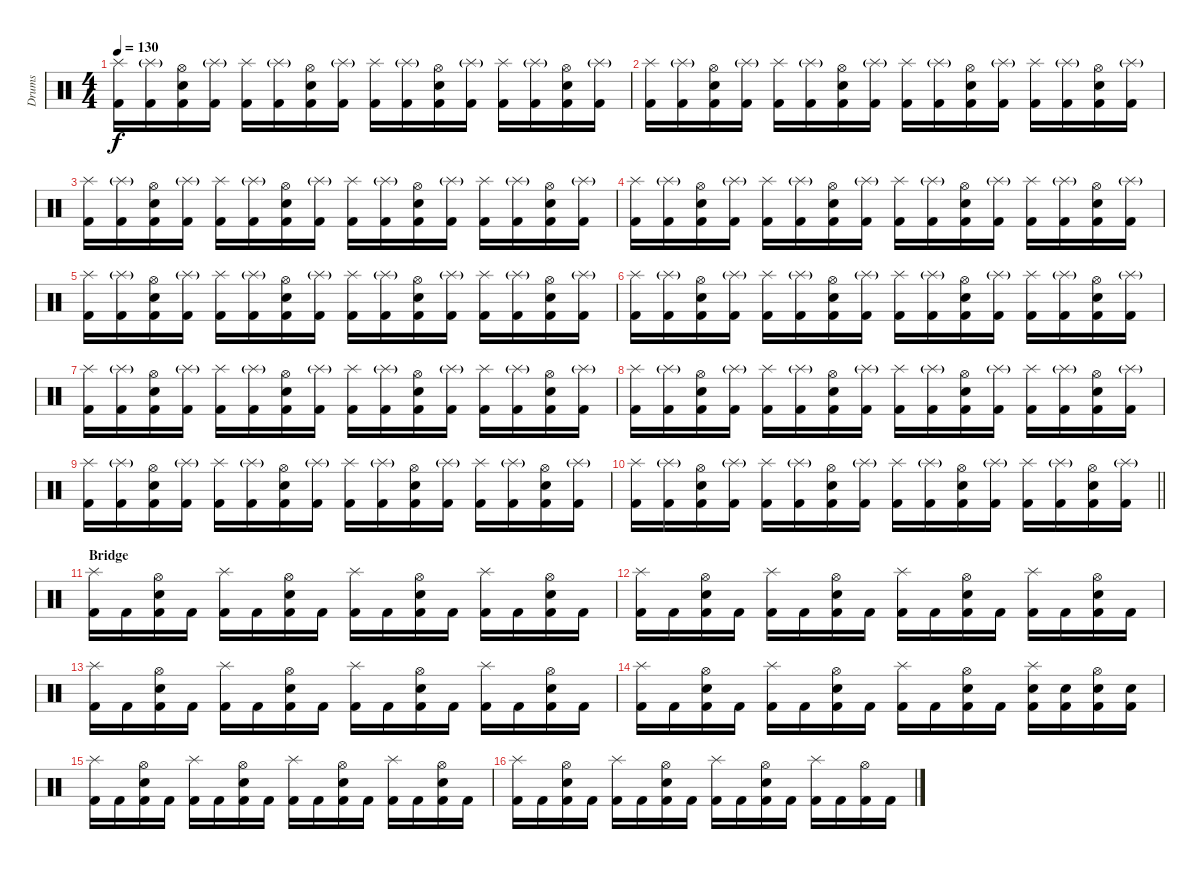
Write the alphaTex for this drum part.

\track ("Drums" "Drums") {instrument percussion}
\staff {score}
\articulation defaults
\ts (4 4)
\tempo 130
\clef neutral
\ks c
("Splash (hit)" "Kick (hit) 2").16{dy f} ("Splash (hit)"{g} "Kick (hit) 2").16 ("Hi-Hat (open)" "Electric Snare (hit)" "Kick (hit) 2").16 ("Splash (hit)"{g} "Kick (hit) 2").16 ("Splash (hit)" "Kick (hit) 2").16 ("Splash (hit)"{g} "Kick (hit) 2").16 ("Hi-Hat (open)" "Electric Snare (hit)" "Kick (hit) 2").16 ("Splash (hit)"{g} "Kick (hit) 2").16 ("Splash (hit)" "Kick (hit) 2").16 ("Splash (hit)"{g} "Kick (hit) 2").16 ("Hi-Hat (open)" "Electric Snare (hit)" "Kick (hit) 2").16 ("Splash (hit)"{g} "Kick (hit) 2").16 ("Splash (hit)" "Kick (hit) 2").16 ("Splash (hit)"{g} "Kick (hit) 2").16 ("Hi-Hat (open)" "Electric Snare (hit)" "Kick (hit) 2").16 ("Splash (hit)"{g} "Kick (hit) 2").16 |
("Splash (hit)" "Kick (hit) 2").16 ("Splash (hit)"{g} "Kick (hit) 2").16 ("Hi-Hat (open)" "Electric Snare (hit)" "Kick (hit) 2").16 ("Splash (hit)"{g} "Kick (hit) 2").16 ("Splash (hit)" "Kick (hit) 2").16 ("Splash (hit)"{g} "Kick (hit) 2").16 ("Hi-Hat (open)" "Electric Snare (hit)" "Kick (hit) 2").16 ("Splash (hit)"{g} "Kick (hit) 2").16 ("Splash (hit)" "Kick (hit) 2").16 ("Splash (hit)"{g} "Kick (hit) 2").16 ("Hi-Hat (open)" "Electric Snare (hit)" "Kick (hit) 2").16 ("Splash (hit)"{g} "Kick (hit) 2").16 ("Splash (hit)" "Kick (hit) 2").16 ("Splash (hit)"{g} "Kick (hit) 2").16 ("Hi-Hat (open)" "Electric Snare (hit)" "Kick (hit) 2").16 ("Splash (hit)"{g} "Kick (hit) 2").16 |
("Splash (hit)" "Kick (hit) 2").16 ("Splash (hit)"{g} "Kick (hit) 2").16 ("Hi-Hat (open)" "Electric Snare (hit)" "Kick (hit) 2").16 ("Splash (hit)"{g} "Kick (hit) 2").16 ("Splash (hit)" "Kick (hit) 2").16 ("Splash (hit)"{g} "Kick (hit) 2").16 ("Hi-Hat (open)" "Electric Snare (hit)" "Kick (hit) 2").16 ("Splash (hit)"{g} "Kick (hit) 2").16 ("Splash (hit)" "Kick (hit) 2").16 ("Splash (hit)"{g} "Kick (hit) 2").16 ("Hi-Hat (open)" "Electric Snare (hit)" "Kick (hit) 2").16 ("Splash (hit)"{g} "Kick (hit) 2").16 ("Splash (hit)" "Kick (hit) 2").16 ("Splash (hit)"{g} "Kick (hit) 2").16 ("Hi-Hat (open)" "Electric Snare (hit)" "Kick (hit) 2").16 ("Splash (hit)"{g} "Kick (hit) 2").16 |
("Splash (hit)" "Kick (hit) 2").16 ("Splash (hit)"{g} "Kick (hit) 2").16 ("Hi-Hat (open)" "Electric Snare (hit)" "Kick (hit) 2").16 ("Splash (hit)"{g} "Kick (hit) 2").16 ("Splash (hit)" "Kick (hit) 2").16 ("Splash (hit)"{g} "Kick (hit) 2").16 ("Hi-Hat (open)" "Electric Snare (hit)" "Kick (hit) 2").16 ("Splash (hit)"{g} "Kick (hit) 2").16 ("Splash (hit)" "Kick (hit) 2").16 ("Splash (hit)"{g} "Kick (hit) 2").16 ("Hi-Hat (open)" "Electric Snare (hit)" "Kick (hit) 2").16 ("Splash (hit)"{g} "Kick (hit) 2").16 ("Splash (hit)" "Kick (hit) 2").16 ("Splash (hit)"{g} "Kick (hit) 2").16 ("Hi-Hat (open)" "Electric Snare (hit)" "Kick (hit) 2").16 ("Splash (hit)"{g} "Kick (hit) 2").16 |
("Splash (hit)" "Kick (hit) 2").16 ("Splash (hit)"{g} "Kick (hit) 2").16 ("Hi-Hat (open)" "Electric Snare (hit)" "Kick (hit) 2").16 ("Splash (hit)"{g} "Kick (hit) 2").16 ("Splash (hit)" "Kick (hit) 2").16 ("Splash (hit)"{g} "Kick (hit) 2").16 ("Hi-Hat (open)" "Electric Snare (hit)" "Kick (hit) 2").16 ("Splash (hit)"{g} "Kick (hit) 2").16 ("Splash (hit)" "Kick (hit) 2").16 ("Splash (hit)"{g} "Kick (hit) 2").16 ("Hi-Hat (open)" "Electric Snare (hit)" "Kick (hit) 2").16 ("Splash (hit)"{g} "Kick (hit) 2").16 ("Splash (hit)" "Kick (hit) 2").16 ("Splash (hit)"{g} "Kick (hit) 2").16 ("Hi-Hat (open)" "Electric Snare (hit)" "Kick (hit) 2").16 ("Splash (hit)"{g} "Kick (hit) 2").16 |
("Splash (hit)" "Kick (hit) 2").16 ("Splash (hit)"{g} "Kick (hit) 2").16 ("Hi-Hat (open)" "Electric Snare (hit)" "Kick (hit) 2").16 ("Splash (hit)"{g} "Kick (hit) 2").16 ("Splash (hit)" "Kick (hit) 2").16 ("Splash (hit)"{g} "Kick (hit) 2").16 ("Hi-Hat (open)" "Electric Snare (hit)" "Kick (hit) 2").16 ("Splash (hit)"{g} "Kick (hit) 2").16 ("Splash (hit)" "Kick (hit) 2").16 ("Splash (hit)"{g} "Kick (hit) 2").16 ("Hi-Hat (open)" "Electric Snare (hit)" "Kick (hit) 2").16 ("Splash (hit)"{g} "Kick (hit) 2").16 ("Splash (hit)" "Kick (hit) 2").16 ("Splash (hit)"{g} "Kick (hit) 2").16 ("Hi-Hat (open)" "Electric Snare (hit)" "Kick (hit) 2").16 ("Splash (hit)"{g} "Kick (hit) 2").16 |
("Splash (hit)" "Kick (hit) 2").16 ("Splash (hit)"{g} "Kick (hit) 2").16 ("Hi-Hat (open)" "Electric Snare (hit)" "Kick (hit) 2").16 ("Splash (hit)"{g} "Kick (hit) 2").16 ("Splash (hit)" "Kick (hit) 2").16 ("Splash (hit)"{g} "Kick (hit) 2").16 ("Hi-Hat (open)" "Electric Snare (hit)" "Kick (hit) 2").16 ("Splash (hit)"{g} "Kick (hit) 2").16 ("Splash (hit)" "Kick (hit) 2").16 ("Splash (hit)"{g} "Kick (hit) 2").16 ("Hi-Hat (open)" "Electric Snare (hit)" "Kick (hit) 2").16 ("Splash (hit)"{g} "Kick (hit) 2").16 ("Splash (hit)" "Kick (hit) 2").16 ("Splash (hit)"{g} "Kick (hit) 2").16 ("Hi-Hat (open)" "Electric Snare (hit)" "Kick (hit) 2").16 ("Splash (hit)"{g} "Kick (hit) 2").16 |
("Splash (hit)" "Kick (hit) 2").16 ("Splash (hit)"{g} "Kick (hit) 2").16 ("Hi-Hat (open)" "Electric Snare (hit)" "Kick (hit) 2").16 ("Splash (hit)"{g} "Kick (hit) 2").16 ("Splash (hit)" "Kick (hit) 2").16 ("Splash (hit)"{g} "Kick (hit) 2").16 ("Hi-Hat (open)" "Electric Snare (hit)" "Kick (hit) 2").16 ("Splash (hit)"{g} "Kick (hit) 2").16 ("Splash (hit)" "Kick (hit) 2").16 ("Splash (hit)"{g} "Kick (hit) 2").16 ("Hi-Hat (open)" "Electric Snare (hit)" "Kick (hit) 2").16 ("Splash (hit)"{g} "Kick (hit) 2").16 ("Splash (hit)" "Kick (hit) 2").16 ("Splash (hit)"{g} "Kick (hit) 2").16 ("Hi-Hat (open)" "Electric Snare (hit)" "Kick (hit) 2").16 ("Splash (hit)"{g} "Kick (hit) 2").16 |
("Splash (hit)" "Kick (hit) 2").16 ("Splash (hit)"{g} "Kick (hit) 2").16 ("Hi-Hat (open)" "Electric Snare (hit)" "Kick (hit) 2").16 ("Splash (hit)"{g} "Kick (hit) 2").16 ("Splash (hit)" "Kick (hit) 2").16 ("Splash (hit)"{g} "Kick (hit) 2").16 ("Hi-Hat (open)" "Electric Snare (hit)" "Kick (hit) 2").16 ("Splash (hit)"{g} "Kick (hit) 2").16 ("Splash (hit)" "Kick (hit) 2").16 ("Splash (hit)"{g} "Kick (hit) 2").16 ("Hi-Hat (open)" "Electric Snare (hit)" "Kick (hit) 2").16 ("Splash (hit)"{g} "Kick (hit) 2").16 ("Splash (hit)" "Kick (hit) 2").16 ("Splash (hit)"{g} "Kick (hit) 2").16 ("Hi-Hat (open)" "Electric Snare (hit)" "Kick (hit) 2").16 ("Splash (hit)"{g} "Kick (hit) 2").16 |
\barLineRight lightlight
("Splash (hit)" "Kick (hit) 2").16 ("Splash (hit)"{g} "Kick (hit) 2").16 ("Hi-Hat (open)" "Electric Snare (hit)" "Kick (hit) 2").16 ("Splash (hit)"{g} "Kick (hit) 2").16 ("Splash (hit)" "Kick (hit) 2").16 ("Splash (hit)"{g} "Kick (hit) 2").16 ("Hi-Hat (open)" "Electric Snare (hit)" "Kick (hit) 2").16 ("Splash (hit)"{g} "Kick (hit) 2").16 ("Splash (hit)" "Kick (hit) 2").16 ("Splash (hit)"{g} "Kick (hit) 2").16 ("Hi-Hat (open)" "Electric Snare (hit)" "Kick (hit) 2").16 ("Splash (hit)"{g} "Kick (hit) 2").16 ("Splash (hit)" "Kick (hit) 2").16 ("Splash (hit)"{g} "Kick (hit) 2").16 ("Hi-Hat (open)" "Electric Snare (hit)" "Kick (hit) 2").16 ("Splash (hit)"{g} "Kick (hit) 2").16 |
\section ("" "Bridge")
("Splash (hit)" "Kick (hit) 2").16 "Kick (hit) 2".16 ("Hi-Hat (open)" "Electric Snare (hit)" "Kick (hit) 2").16 "Kick (hit) 2".16 ("Splash (hit)" "Kick (hit) 2").16 "Kick (hit) 2".16 ("Hi-Hat (open)" "Electric Snare (hit)" "Kick (hit) 2").16 "Kick (hit) 2".16 ("Splash (hit)" "Kick (hit) 2").16 "Kick (hit) 2".16 ("Hi-Hat (open)" "Electric Snare (hit)" "Kick (hit) 2").16 "Kick (hit) 2".16 ("Splash (hit)" "Kick (hit) 2").16 "Kick (hit) 2".16 ("Hi-Hat (open)" "Electric Snare (hit)" "Kick (hit) 2").16 "Kick (hit) 2".16 |
("Splash (hit)" "Kick (hit) 2").16 "Kick (hit) 2".16 ("Hi-Hat (open)" "Electric Snare (hit)" "Kick (hit) 2").16 "Kick (hit) 2".16 ("Splash (hit)" "Kick (hit) 2").16 "Kick (hit) 2".16 ("Hi-Hat (open)" "Electric Snare (hit)" "Kick (hit) 2").16 "Kick (hit) 2".16 ("Splash (hit)" "Kick (hit) 2").16 "Kick (hit) 2".16 ("Hi-Hat (open)" "Electric Snare (hit)" "Kick (hit) 2").16 "Kick (hit) 2".16 ("Splash (hit)" "Kick (hit) 2").16 "Kick (hit) 2".16 ("Hi-Hat (open)" "Electric Snare (hit)" "Kick (hit) 2").16 "Kick (hit) 2".16 |
("Splash (hit)" "Kick (hit) 2").16 "Kick (hit) 2".16 ("Hi-Hat (open)" "Electric Snare (hit)" "Kick (hit) 2").16 "Kick (hit) 2".16 ("Splash (hit)" "Kick (hit) 2").16 "Kick (hit) 2".16 ("Hi-Hat (open)" "Electric Snare (hit)" "Kick (hit) 2").16 "Kick (hit) 2".16 ("Splash (hit)" "Kick (hit) 2").16 "Kick (hit) 2".16 ("Hi-Hat (open)" "Electric Snare (hit)" "Kick (hit) 2").16 "Kick (hit) 2".16 ("Splash (hit)" "Kick (hit) 2").16 "Kick (hit) 2".16 ("Hi-Hat (open)" "Electric Snare (hit)" "Kick (hit) 2").16 "Kick (hit) 2".16 |
("Splash (hit)" "Kick (hit) 2").16 "Kick (hit) 2".16 ("Hi-Hat (open)" "Electric Snare (hit)" "Kick (hit) 2").16 "Kick (hit) 2".16 ("Splash (hit)" "Kick (hit) 2").16 "Kick (hit) 2".16 ("Hi-Hat (open)" "Electric Snare (hit)" "Kick (hit) 2").16 "Kick (hit) 2".16 ("Splash (hit)" "Kick (hit) 2").16 "Kick (hit) 2".16 ("Hi-Hat (open)" "Electric Snare (hit)" "Kick (hit) 2").16 "Kick (hit) 2".16 ("Splash (hit)" "Electric Snare (hit)" "Kick (hit) 2").16 ("Electric Snare (hit)" "Kick (hit) 2").16 ("Hi-Hat (open)" "Electric Snare (hit)" "Kick (hit) 2").16 ("Electric Snare (hit)" "Kick (hit) 2").16 |
("Splash (hit)" "Kick (hit) 2").16 "Kick (hit) 2".16 ("Hi-Hat (open)" "Electric Snare (hit)" "Kick (hit) 2").16 "Kick (hit) 2".16 ("Splash (hit)" "Kick (hit) 2").16 "Kick (hit) 2".16 ("Hi-Hat (open)" "Electric Snare (hit)" "Kick (hit) 2").16 "Kick (hit) 2".16 ("Splash (hit)" "Kick (hit) 2").16 "Kick (hit) 2".16 ("Hi-Hat (open)" "Electric Snare (hit)" "Kick (hit) 2").16 "Kick (hit) 2".16 ("Splash (hit)" "Kick (hit) 2").16 "Kick (hit) 2".16 ("Hi-Hat (open)" "Electric Snare (hit)" "Kick (hit) 2").16 "Kick (hit) 2".16 |
("Splash (hit)" "Kick (hit) 2").16 "Kick (hit) 2".16 ("Hi-Hat (open)" "Electric Snare (hit)" "Kick (hit) 2").16 "Kick (hit) 2".16 ("Splash (hit)" "Kick (hit) 2").16 "Kick (hit) 2".16 ("Hi-Hat (open)" "Electric Snare (hit)" "Kick (hit) 2").16 "Kick (hit) 2".16 ("Splash (hit)" "Kick (hit) 2").16 "Kick (hit) 2".16 ("Hi-Hat (open)" "Electric Snare (hit)" "Kick (hit) 2").16 "Kick (hit) 2".16 ("Splash (hit)" "Kick (hit) 2").16 "Kick (hit) 2".16 ("Hi-Hat (open)" "Kick (hit) 2").16 "Kick (hit) 2".16
